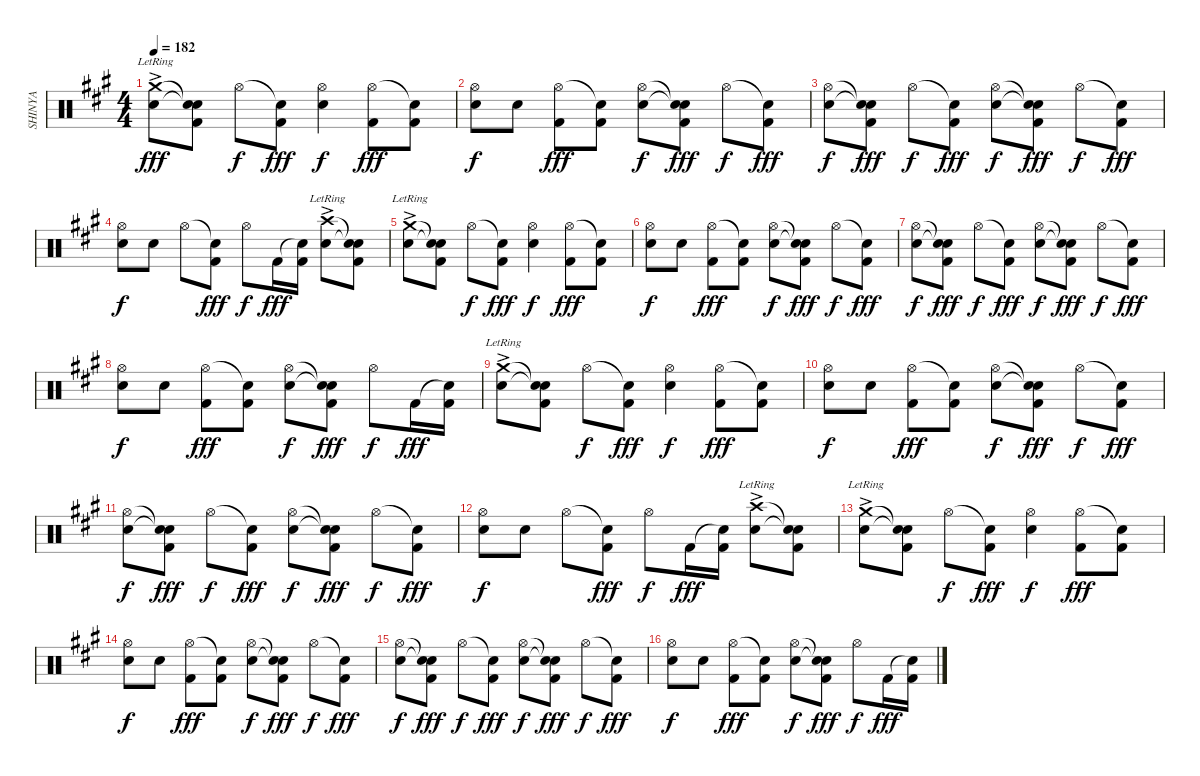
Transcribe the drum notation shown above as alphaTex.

\track ("SHINYA" "SHINYA") {instrument percussion}
\staff {score}
\articulation defaults
\ts (4 4)
\tempo 182
\clef neutral
\ks a
("Crash medium (hit)"{ac lr} "Electric Snare (hit)").8{dy fff} ("Snare (hit)"{t} "Snare (hit)"{t} "Kick (hit) 2").8 "Hi-Hat (open)".8{dy f} ("Snare (hit)"{t} "Kick (hit) 2").8{dy fff} ("Hi-Hat (open)" "Electric Snare (hit)").4{dy f} ("Hi-Hat (open)" "Kick (hit) 2").8{dy fff} ("Snare (hit)"{t} "Kick (hit) 2").8 |
("Hi-Hat (open)" "Electric Snare (hit)").8{dy f} "Electric Snare (hit)".8 ("Hi-Hat (open)" "Kick (hit) 2").8{dy fff} ("Snare (hit)"{t} "Kick (hit) 2").8 ("Hi-Hat (open)" "Electric Snare (hit)").8{dy f} ("Snare (hit)"{t} "Snare (hit)"{t} "Kick (hit) 2").8{dy fff} "Hi-Hat (open)".8{dy f} ("Snare (hit)"{t} "Kick (hit) 2").8{dy fff} |
("Hi-Hat (open)" "Electric Snare (hit)").8{dy f} ("Snare (hit)"{t} "Snare (hit)"{t} "Kick (hit) 2").8{dy fff} "Hi-Hat (open)".8{dy f} ("Snare (hit)"{t} "Kick (hit) 2").8{dy fff} ("Hi-Hat (open)" "Electric Snare (hit)").8{dy f} ("Snare (hit)"{t} "Snare (hit)"{t} "Kick (hit) 2").8{dy fff} "Hi-Hat (open)".8{dy f} ("Snare (hit)"{t} "Kick (hit) 2").8{dy fff} |
("Hi-Hat (open)" "Electric Snare (hit)").8{dy f} "Electric Snare (hit)".8 "Hi-Hat (open)".8 ("Snare (hit)"{t} "Kick (hit) 2").8{dy fff} "Hi-Hat (open)".8{dy f} "Kick (hit) 2".16{dy fff} ("Snare (hit)"{t} "Kick (hit) 2").16 ("Crash high (hit)"{ac lr} "Electric Snare (hit)").8 ("Snare (hit)"{t} "Snare (hit)"{t} "Kick (hit) 2").8 |
("Crash medium (hit)"{ac lr} "Electric Snare (hit)").8 ("Snare (hit)"{t} "Snare (hit)"{t} "Kick (hit) 2").8 "Hi-Hat (open)".8{dy f} ("Snare (hit)"{t} "Kick (hit) 2").8{dy fff} ("Hi-Hat (open)" "Electric Snare (hit)").4{dy f} ("Hi-Hat (open)" "Kick (hit) 2").8{dy fff} ("Snare (hit)"{t} "Kick (hit) 2").8 |
("Hi-Hat (open)" "Electric Snare (hit)").8{dy f} "Electric Snare (hit)".8 ("Hi-Hat (open)" "Kick (hit) 2").8{dy fff} ("Snare (hit)"{t} "Kick (hit) 2").8 ("Hi-Hat (open)" "Electric Snare (hit)").8{dy f} ("Snare (hit)"{t} "Snare (hit)"{t} "Kick (hit) 2").8{dy fff} "Hi-Hat (open)".8{dy f} ("Snare (hit)"{t} "Kick (hit) 2").8{dy fff} |
("Hi-Hat (open)" "Electric Snare (hit)").8{dy f} ("Snare (hit)"{t} "Snare (hit)"{t} "Kick (hit) 2").8{dy fff} "Hi-Hat (open)".8{dy f} ("Snare (hit)"{t} "Kick (hit) 2").8{dy fff} ("Hi-Hat (open)" "Electric Snare (hit)").8{dy f} ("Snare (hit)"{t} "Snare (hit)"{t} "Kick (hit) 2").8{dy fff} "Hi-Hat (open)".8{dy f} ("Snare (hit)"{t} "Kick (hit) 2").8{dy fff} |
("Hi-Hat (open)" "Electric Snare (hit)").8{dy f} "Electric Snare (hit)".8 ("Hi-Hat (open)" "Kick (hit) 2").8{dy fff} ("Snare (hit)"{t} "Kick (hit) 2").8 ("Hi-Hat (open)" "Electric Snare (hit)").8{dy f} ("Snare (hit)"{t} "Snare (hit)"{t} "Kick (hit) 2").8{dy fff} "Hi-Hat (open)".8{dy f} "Kick (hit) 2".16{dy fff} ("Snare (hit)"{t} "Kick (hit) 2").16 |
("Crash medium (hit)"{ac lr} "Electric Snare (hit)").8 ("Snare (hit)"{t} "Snare (hit)"{t} "Kick (hit) 2").8 "Hi-Hat (open)".8{dy f} ("Snare (hit)"{t} "Kick (hit) 2").8{dy fff} ("Hi-Hat (open)" "Electric Snare (hit)").4{dy f} ("Hi-Hat (open)" "Kick (hit) 2").8{dy fff} ("Snare (hit)"{t} "Kick (hit) 2").8 |
("Hi-Hat (open)" "Electric Snare (hit)").8{dy f} "Electric Snare (hit)".8 ("Hi-Hat (open)" "Kick (hit) 2").8{dy fff} ("Snare (hit)"{t} "Kick (hit) 2").8 ("Hi-Hat (open)" "Electric Snare (hit)").8{dy f} ("Snare (hit)"{t} "Snare (hit)"{t} "Kick (hit) 2").8{dy fff} "Hi-Hat (open)".8{dy f} ("Snare (hit)"{t} "Kick (hit) 2").8{dy fff} |
("Hi-Hat (open)" "Electric Snare (hit)").8{dy f} ("Snare (hit)"{t} "Snare (hit)"{t} "Kick (hit) 2").8{dy fff} "Hi-Hat (open)".8{dy f} ("Snare (hit)"{t} "Kick (hit) 2").8{dy fff} ("Hi-Hat (open)" "Electric Snare (hit)").8{dy f} ("Snare (hit)"{t} "Snare (hit)"{t} "Kick (hit) 2").8{dy fff} "Hi-Hat (open)".8{dy f} ("Snare (hit)"{t} "Kick (hit) 2").8{dy fff} |
("Hi-Hat (open)" "Electric Snare (hit)").8{dy f} "Electric Snare (hit)".8 "Hi-Hat (open)".8 ("Snare (hit)"{t} "Kick (hit) 2").8{dy fff} "Hi-Hat (open)".8{dy f} "Kick (hit) 2".16{dy fff} ("Snare (hit)"{t} "Kick (hit) 2").16 ("Crash high (hit)"{ac lr} "Electric Snare (hit)").8 ("Snare (hit)"{t} "Snare (hit)"{t} "Kick (hit) 2").8 |
("Crash medium (hit)"{ac lr} "Electric Snare (hit)").8 ("Snare (hit)"{t} "Snare (hit)"{t} "Kick (hit) 2").8 "Hi-Hat (open)".8{dy f} ("Snare (hit)"{t} "Kick (hit) 2").8{dy fff} ("Hi-Hat (open)" "Electric Snare (hit)").4{dy f} ("Hi-Hat (open)" "Kick (hit) 2").8{dy fff} ("Snare (hit)"{t} "Kick (hit) 2").8 |
("Hi-Hat (open)" "Electric Snare (hit)").8{dy f} "Electric Snare (hit)".8 ("Hi-Hat (open)" "Kick (hit) 2").8{dy fff} ("Snare (hit)"{t} "Kick (hit) 2").8 ("Hi-Hat (open)" "Electric Snare (hit)").8{dy f} ("Snare (hit)"{t} "Snare (hit)"{t} "Kick (hit) 2").8{dy fff} "Hi-Hat (open)".8{dy f} ("Snare (hit)"{t} "Kick (hit) 2").8{dy fff} |
("Hi-Hat (open)" "Electric Snare (hit)").8{dy f} ("Snare (hit)"{t} "Snare (hit)"{t} "Kick (hit) 2").8{dy fff} "Hi-Hat (open)".8{dy f} ("Snare (hit)"{t} "Kick (hit) 2").8{dy fff} ("Hi-Hat (open)" "Electric Snare (hit)").8{dy f} ("Snare (hit)"{t} "Snare (hit)"{t} "Kick (hit) 2").8{dy fff} "Hi-Hat (open)".8{dy f} ("Snare (hit)"{t} "Kick (hit) 2").8{dy fff} |
("Hi-Hat (open)" "Electric Snare (hit)").8{dy f} "Electric Snare (hit)".8 ("Hi-Hat (open)" "Kick (hit) 2").8{dy fff} ("Snare (hit)"{t} "Kick (hit) 2").8 ("Hi-Hat (open)" "Electric Snare (hit)").8{dy f} ("Snare (hit)"{t} "Snare (hit)"{t} "Kick (hit) 2").8{dy fff} "Hi-Hat (open)".8{dy f} "Kick (hit) 2".16{dy fff} ("Snare (hit)"{t} "Kick (hit) 2").16
